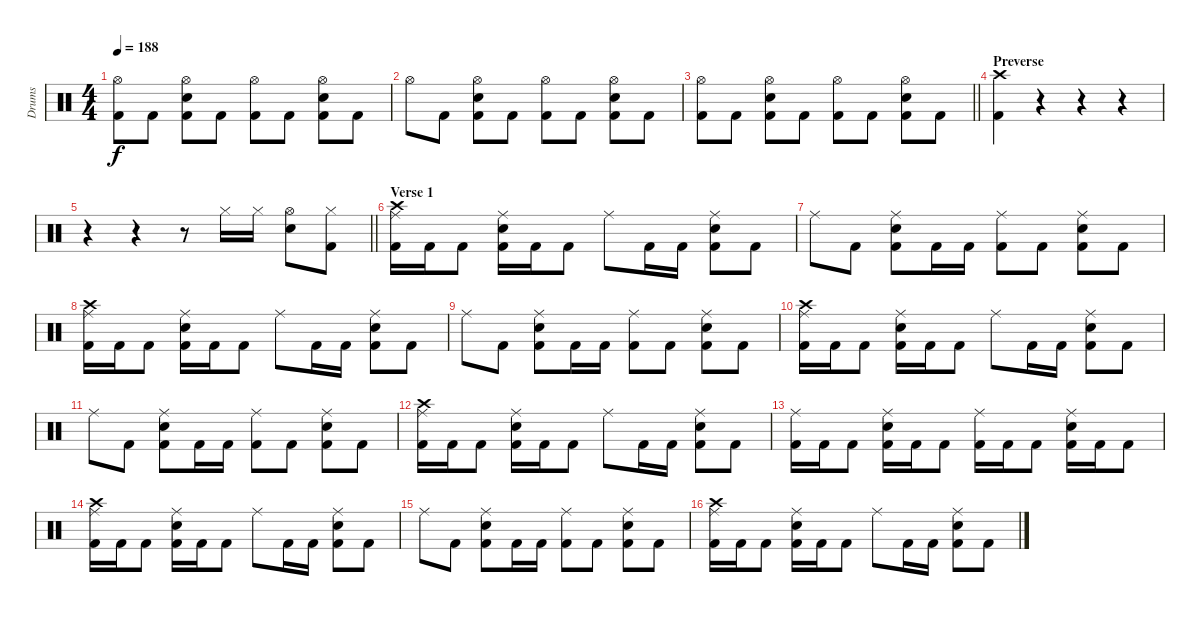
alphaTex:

\track ("Drums" "Drums") {instrument percussion}
\staff {score}
\articulation defaults
\ts (4 4)
\tempo 188
\clef neutral
\ks c
("Hi-Hat (open)" "Kick (hit) 2").8{dy f} "Kick (hit) 2".8 ("Hi-Hat (open)" "Snare (hit) 2" "Kick (hit) 2").8 "Kick (hit) 2".8 ("Hi-Hat (open)" "Kick (hit) 2").8 "Kick (hit) 2".8 ("Hi-Hat (open)" "Snare (hit) 2" "Kick (hit) 2").8 "Kick (hit) 2".8 |
"Hi-Hat (open)".8 "Kick (hit) 2".8 ("Hi-Hat (open)" "Snare (hit) 2" "Kick (hit) 2").8 "Kick (hit) 2".8 ("Hi-Hat (open)" "Kick (hit) 2").8 "Kick (hit) 2".8 ("Hi-Hat (open)" "Snare (hit) 2" "Kick (hit) 2").8 "Kick (hit) 2".8 |
\barLineRight lightlight
("Hi-Hat (open)" "Kick (hit) 2").8 "Kick (hit) 2".8 ("Hi-Hat (open)" "Snare (hit) 2" "Kick (hit) 2").8 "Kick (hit) 2".8 ("Hi-Hat (open)" "Kick (hit) 2").8 "Kick (hit) 2".8 ("Hi-Hat (open)" "Snare (hit) 2" "Kick (hit) 2").8 "Kick (hit) 2".8 |
\section ("" "Preverse")
("Crash high (hit)" "Kick (hit) 2").4 r.4 r.4 r.4 |
\barLineRight lightlight
r.4 r.4 r.8 "Hi-Hat (closed)".16 "Hi-Hat (closed)".16 ("Hi-Hat (open)" "Snare (hit) 2").8 ("Hi-Hat (closed)" "Kick (hit) 2").8 |
\section ("" "Verse 1")
("Crash high (hit)" "Ride (middle)" "Kick (hit) 2").16 "Kick (hit) 2".16 "Kick (hit) 2".8 ("Ride (middle)" "Snare (hit) 2" "Kick (hit) 2").16 "Kick (hit) 2".16 "Kick (hit) 2".8 "Ride (middle)".8 "Kick (hit) 2".16 "Kick (hit) 2".16 ("Ride (middle)" "Snare (hit) 2" "Kick (hit) 2").8 "Kick (hit) 2".8 |
"Ride (middle)".8 "Kick (hit) 2".8 ("Ride (middle)" "Snare (hit) 2" "Kick (hit) 2").8 "Kick (hit) 2".16 "Kick (hit) 2".16 ("Ride (middle)" "Kick (hit) 2").8 "Kick (hit) 2".8 ("Ride (middle)" "Snare (hit) 2" "Kick (hit) 2").8 "Kick (hit) 2".8 |
("Crash high (hit)" "Ride (middle)" "Kick (hit) 2").16 "Kick (hit) 2".16 "Kick (hit) 2".8 ("Ride (middle)" "Snare (hit) 2" "Kick (hit) 2").16 "Kick (hit) 2".16 "Kick (hit) 2".8 "Ride (middle)".8 "Kick (hit) 2".16 "Kick (hit) 2".16 ("Ride (middle)" "Snare (hit) 2" "Kick (hit) 2").8 "Kick (hit) 2".8 |
"Ride (middle)".8 "Kick (hit) 2".8 ("Ride (middle)" "Snare (hit) 2" "Kick (hit) 2").8 "Kick (hit) 2".16 "Kick (hit) 2".16 ("Ride (middle)" "Kick (hit) 2").8 "Kick (hit) 2".8 ("Ride (middle)" "Snare (hit) 2" "Kick (hit) 2").8 "Kick (hit) 2".8 |
("Crash high (hit)" "Ride (middle)" "Kick (hit) 2").16 "Kick (hit) 2".16 "Kick (hit) 2".8 ("Ride (middle)" "Snare (hit) 2" "Kick (hit) 2").16 "Kick (hit) 2".16 "Kick (hit) 2".8 "Ride (middle)".8 "Kick (hit) 2".16 "Kick (hit) 2".16 ("Ride (middle)" "Snare (hit) 2" "Kick (hit) 2").8 "Kick (hit) 2".8 |
"Ride (middle)".8 "Kick (hit) 2".8 ("Ride (middle)" "Snare (hit) 2" "Kick (hit) 2").8 "Kick (hit) 2".16 "Kick (hit) 2".16 ("Ride (middle)" "Kick (hit) 2").8 "Kick (hit) 2".8 ("Ride (middle)" "Snare (hit) 2" "Kick (hit) 2").8 "Kick (hit) 2".8 |
("Crash high (hit)" "Ride (middle)" "Kick (hit) 2").16 "Kick (hit) 2".16 "Kick (hit) 2".8 ("Ride (middle)" "Snare (hit) 2" "Kick (hit) 2").16 "Kick (hit) 2".16 "Kick (hit) 2".8 "Ride (middle)".8 "Kick (hit) 2".16 "Kick (hit) 2".16 ("Ride (middle)" "Snare (hit) 2" "Kick (hit) 2").8 "Kick (hit) 2".8 |
("Ride (middle)" "Kick (hit) 2").16 "Kick (hit) 2".16 "Kick (hit) 2".8 ("Ride (middle)" "Snare (hit) 2" "Kick (hit) 2").16 "Kick (hit) 2".16 "Kick (hit) 2".8 ("Ride (middle)" "Kick (hit) 2").16 "Kick (hit) 2".16 "Kick (hit) 2".8 ("Ride (middle)" "Snare (hit) 2" "Kick (hit) 2").16 "Kick (hit) 2".16 "Kick (hit) 2".8 |
("Crash high (hit)" "Ride (middle)" "Kick (hit) 2").16 "Kick (hit) 2".16 "Kick (hit) 2".8 ("Ride (middle)" "Snare (hit) 2" "Kick (hit) 2").16 "Kick (hit) 2".16 "Kick (hit) 2".8 "Ride (middle)".8 "Kick (hit) 2".16 "Kick (hit) 2".16 ("Ride (middle)" "Snare (hit) 2" "Kick (hit) 2").8 "Kick (hit) 2".8 |
"Ride (middle)".8 "Kick (hit) 2".8 ("Ride (middle)" "Snare (hit) 2" "Kick (hit) 2").8 "Kick (hit) 2".16 "Kick (hit) 2".16 ("Ride (middle)" "Kick (hit) 2").8 "Kick (hit) 2".8 ("Ride (middle)" "Snare (hit) 2" "Kick (hit) 2").8 "Kick (hit) 2".8 |
("Crash high (hit)" "Ride (middle)" "Kick (hit) 2").16 "Kick (hit) 2".16 "Kick (hit) 2".8 ("Ride (middle)" "Snare (hit) 2" "Kick (hit) 2").16 "Kick (hit) 2".16 "Kick (hit) 2".8 "Ride (middle)".8 "Kick (hit) 2".16 "Kick (hit) 2".16 ("Ride (middle)" "Snare (hit) 2" "Kick (hit) 2").8 "Kick (hit) 2".8
